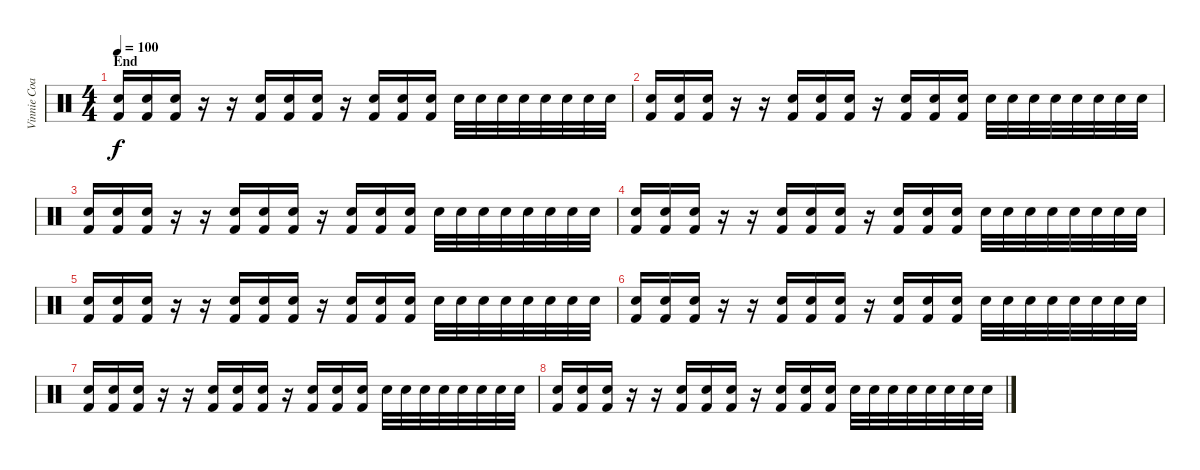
\track ("Vinnie Coaiuta" "Vinnie Coa") {instrument percussion}
\staff {score}
\articulation defaults
\ts (4 4)
\section ("" "End")
\tempo 100
\clef neutral
\ks c
("Snare (hit) 2" "Kick (hit) 2").16{dy f} ("Snare (hit) 2" "Kick (hit) 2").16 ("Snare (hit) 2" "Kick (hit) 2").16 r.16 r.16 ("Snare (hit) 2" "Kick (hit) 2").16 ("Snare (hit) 2" "Kick (hit) 2").16 ("Snare (hit) 2" "Kick (hit) 2").16 r.16 ("Snare (hit) 2" "Kick (hit) 2").16 ("Snare (hit) 2" "Kick (hit) 2").16 ("Snare (hit) 2" "Kick (hit) 2").16 "Snare (hit) 2".32 "Snare (hit) 2".32 "Snare (hit) 2".32 "Snare (hit) 2".32 "Snare (hit) 2".32 "Snare (hit) 2".32 "Snare (hit) 2".32 "Snare (hit) 2".32 |
("Snare (hit) 2" "Kick (hit) 2").16 ("Snare (hit) 2" "Kick (hit) 2").16 ("Snare (hit) 2" "Kick (hit) 2").16 r.16 r.16 ("Snare (hit) 2" "Kick (hit) 2").16 ("Snare (hit) 2" "Kick (hit) 2").16 ("Snare (hit) 2" "Kick (hit) 2").16 r.16 ("Snare (hit) 2" "Kick (hit) 2").16 ("Snare (hit) 2" "Kick (hit) 2").16 ("Snare (hit) 2" "Kick (hit) 2").16 "Snare (hit) 2".32 "Snare (hit) 2".32 "Snare (hit) 2".32 "Snare (hit) 2".32 "Snare (hit) 2".32 "Snare (hit) 2".32 "Snare (hit) 2".32 "Snare (hit) 2".32 |
("Snare (hit) 2" "Kick (hit) 2").16 ("Snare (hit) 2" "Kick (hit) 2").16 ("Snare (hit) 2" "Kick (hit) 2").16 r.16 r.16 ("Snare (hit) 2" "Kick (hit) 2").16 ("Snare (hit) 2" "Kick (hit) 2").16 ("Snare (hit) 2" "Kick (hit) 2").16 r.16 ("Snare (hit) 2" "Kick (hit) 2").16 ("Snare (hit) 2" "Kick (hit) 2").16 ("Snare (hit) 2" "Kick (hit) 2").16 "Snare (hit) 2".32 "Snare (hit) 2".32 "Snare (hit) 2".32 "Snare (hit) 2".32 "Snare (hit) 2".32 "Snare (hit) 2".32 "Snare (hit) 2".32 "Snare (hit) 2".32 |
("Snare (hit) 2" "Kick (hit) 2").16 ("Snare (hit) 2" "Kick (hit) 2").16 ("Snare (hit) 2" "Kick (hit) 2").16 r.16 r.16 ("Snare (hit) 2" "Kick (hit) 2").16 ("Snare (hit) 2" "Kick (hit) 2").16 ("Snare (hit) 2" "Kick (hit) 2").16 r.16 ("Snare (hit) 2" "Kick (hit) 2").16 ("Snare (hit) 2" "Kick (hit) 2").16 ("Snare (hit) 2" "Kick (hit) 2").16 "Snare (hit) 2".32 "Snare (hit) 2".32 "Snare (hit) 2".32 "Snare (hit) 2".32 "Snare (hit) 2".32 "Snare (hit) 2".32 "Snare (hit) 2".32 "Snare (hit) 2".32 |
("Snare (hit) 2" "Kick (hit) 2").16 ("Snare (hit) 2" "Kick (hit) 2").16 ("Snare (hit) 2" "Kick (hit) 2").16 r.16 r.16 ("Snare (hit) 2" "Kick (hit) 2").16 ("Snare (hit) 2" "Kick (hit) 2").16 ("Snare (hit) 2" "Kick (hit) 2").16 r.16 ("Snare (hit) 2" "Kick (hit) 2").16 ("Snare (hit) 2" "Kick (hit) 2").16 ("Snare (hit) 2" "Kick (hit) 2").16 "Snare (hit) 2".32 "Snare (hit) 2".32 "Snare (hit) 2".32 "Snare (hit) 2".32 "Snare (hit) 2".32 "Snare (hit) 2".32 "Snare (hit) 2".32 "Snare (hit) 2".32 |
("Snare (hit) 2" "Kick (hit) 2").16 ("Snare (hit) 2" "Kick (hit) 2").16 ("Snare (hit) 2" "Kick (hit) 2").16 r.16 r.16 ("Snare (hit) 2" "Kick (hit) 2").16 ("Snare (hit) 2" "Kick (hit) 2").16 ("Snare (hit) 2" "Kick (hit) 2").16 r.16 ("Snare (hit) 2" "Kick (hit) 2").16 ("Snare (hit) 2" "Kick (hit) 2").16 ("Snare (hit) 2" "Kick (hit) 2").16 "Snare (hit) 2".32 "Snare (hit) 2".32 "Snare (hit) 2".32 "Snare (hit) 2".32 "Snare (hit) 2".32 "Snare (hit) 2".32 "Snare (hit) 2".32 "Snare (hit) 2".32 |
("Snare (hit) 2" "Kick (hit) 2").16 ("Snare (hit) 2" "Kick (hit) 2").16 ("Snare (hit) 2" "Kick (hit) 2").16 r.16 r.16 ("Snare (hit) 2" "Kick (hit) 2").16 ("Snare (hit) 2" "Kick (hit) 2").16 ("Snare (hit) 2" "Kick (hit) 2").16 r.16 ("Snare (hit) 2" "Kick (hit) 2").16 ("Snare (hit) 2" "Kick (hit) 2").16 ("Snare (hit) 2" "Kick (hit) 2").16 "Snare (hit) 2".32 "Snare (hit) 2".32 "Snare (hit) 2".32 "Snare (hit) 2".32 "Snare (hit) 2".32 "Snare (hit) 2".32 "Snare (hit) 2".32 "Snare (hit) 2".32 |
("Snare (hit) 2" "Kick (hit) 2").16 ("Snare (hit) 2" "Kick (hit) 2").16 ("Snare (hit) 2" "Kick (hit) 2").16 r.16 r.16 ("Snare (hit) 2" "Kick (hit) 2").16 ("Snare (hit) 2" "Kick (hit) 2").16 ("Snare (hit) 2" "Kick (hit) 2").16 r.16 ("Snare (hit) 2" "Kick (hit) 2").16 ("Snare (hit) 2" "Kick (hit) 2").16 ("Snare (hit) 2" "Kick (hit) 2").16 "Snare (hit) 2".32 "Snare (hit) 2".32 "Snare (hit) 2".32 "Snare (hit) 2".32 "Snare (hit) 2".32 "Snare (hit) 2".32 "Snare (hit) 2".32 "Snare (hit) 2".32
